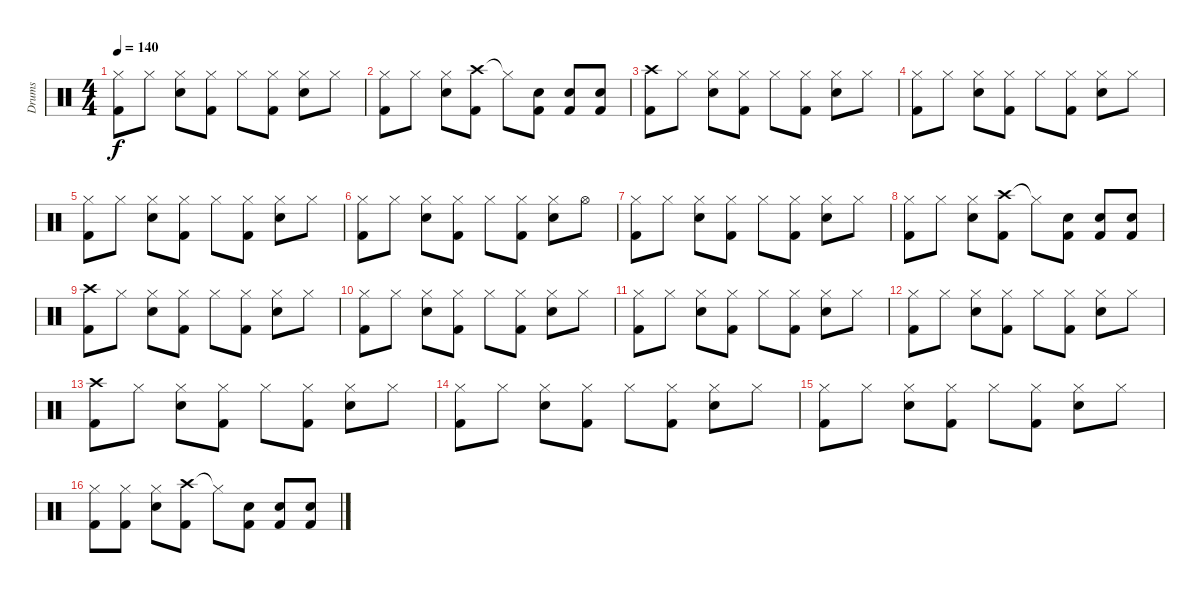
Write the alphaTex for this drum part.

\track ("Drums" "Drums") {instrument percussion}
\staff {score}
\articulation defaults
\ts (4 4)
\tempo 140
\clef neutral
\ks c
("Hi-Hat (closed)" "Kick (hit) 2").8{dy f} "Hi-Hat (closed)".8 ("Hi-Hat (closed)" "Snare (hit) 2").8 ("Hi-Hat (closed)" "Kick (hit) 2").8 "Hi-Hat (closed)".8 ("Hi-Hat (closed)" "Kick (hit) 2").8 ("Hi-Hat (closed)" "Snare (hit) 2").8 "Hi-Hat (closed)".8 |
("Hi-Hat (closed)" "Kick (hit) 2").8 "Hi-Hat (closed)".8 ("Hi-Hat (closed)" "Snare (hit) 2").8 ("Crash high (hit)" "Kick (hit) 2").8 "Hi-Hat (closed)"{t}.8 ("Snare (hit) 2" "Kick (hit) 2").8 ("Snare (hit) 2" "Kick (hit) 2").8 ("Snare (hit) 2" "Kick (hit) 2").8 |
("Crash high (hit)" "Kick (hit) 2").8 "Hi-Hat (closed)".8 ("Hi-Hat (closed)" "Snare (hit) 2").8 ("Hi-Hat (closed)" "Kick (hit) 2").8 "Hi-Hat (closed)".8 ("Hi-Hat (closed)" "Kick (hit) 2").8 ("Hi-Hat (closed)" "Snare (hit) 2").8 "Hi-Hat (closed)".8 |
("Hi-Hat (closed)" "Kick (hit) 2").8 "Hi-Hat (closed)".8 ("Hi-Hat (closed)" "Snare (hit) 2").8 ("Hi-Hat (closed)" "Kick (hit) 2").8 "Hi-Hat (closed)".8 ("Hi-Hat (closed)" "Kick (hit) 2").8 ("Hi-Hat (closed)" "Snare (hit) 2").8 "Hi-Hat (closed)".8 |
("Hi-Hat (closed)" "Kick (hit) 2").8 "Hi-Hat (closed)".8 ("Hi-Hat (closed)" "Snare (hit) 2").8 ("Hi-Hat (closed)" "Kick (hit) 2").8 "Hi-Hat (closed)".8 ("Hi-Hat (closed)" "Kick (hit) 2").8 ("Hi-Hat (closed)" "Snare (hit) 2").8 "Hi-Hat (closed)".8 |
("Hi-Hat (closed)" "Kick (hit) 2").8 "Hi-Hat (closed)".8 ("Hi-Hat (closed)" "Snare (hit) 2").8 ("Hi-Hat (closed)" "Kick (hit) 2").8 "Hi-Hat (closed)".8 ("Hi-Hat (closed)" "Kick (hit) 2").8 ("Hi-Hat (closed)" "Snare (hit) 2").8 "Hi-Hat (open)".8 |
("Hi-Hat (closed)" "Kick (hit) 2").8 "Hi-Hat (closed)".8 ("Hi-Hat (closed)" "Snare (hit) 2").8 ("Hi-Hat (closed)" "Kick (hit) 2").8 "Hi-Hat (closed)".8 ("Hi-Hat (closed)" "Kick (hit) 2").8 ("Hi-Hat (closed)" "Snare (hit) 2").8 "Hi-Hat (closed)".8 |
("Hi-Hat (closed)" "Kick (hit) 2").8 "Hi-Hat (closed)".8 ("Hi-Hat (closed)" "Snare (hit) 2").8 ("Crash high (hit)" "Kick (hit) 2").8 "Hi-Hat (closed)"{t}.8 ("Snare (hit) 2" "Kick (hit) 2").8 ("Snare (hit) 2" "Kick (hit) 2").8 ("Snare (hit) 2" "Kick (hit) 2").8 |
("Crash high (hit)" "Kick (hit) 2").8 "Hi-Hat (closed)".8 ("Hi-Hat (closed)" "Snare (hit) 2").8 ("Hi-Hat (closed)" "Kick (hit) 2").8 "Hi-Hat (closed)".8 ("Hi-Hat (closed)" "Kick (hit) 2").8 ("Hi-Hat (closed)" "Snare (hit) 2").8 "Hi-Hat (closed)".8 |
("Hi-Hat (closed)" "Kick (hit) 2").8 "Hi-Hat (closed)".8 ("Hi-Hat (closed)" "Snare (hit) 2").8 ("Hi-Hat (closed)" "Kick (hit) 2").8 "Hi-Hat (closed)".8 ("Hi-Hat (closed)" "Kick (hit) 2").8 ("Hi-Hat (closed)" "Snare (hit) 2").8 "Hi-Hat (closed)".8 |
("Hi-Hat (closed)" "Kick (hit) 2").8 "Hi-Hat (closed)".8 ("Hi-Hat (closed)" "Snare (hit) 2").8 ("Hi-Hat (closed)" "Kick (hit) 2").8 "Hi-Hat (closed)".8 ("Hi-Hat (closed)" "Kick (hit) 2").8 ("Hi-Hat (closed)" "Snare (hit) 2").8 "Hi-Hat (closed)".8 |
("Hi-Hat (closed)" "Kick (hit) 2").8 "Hi-Hat (closed)".8 ("Hi-Hat (closed)" "Snare (hit) 2").8 ("Hi-Hat (closed)" "Kick (hit) 2").8 "Hi-Hat (closed)".8 ("Hi-Hat (closed)" "Kick (hit) 2").8 ("Hi-Hat (closed)" "Snare (hit) 2").8 "Hi-Hat (closed)".8 |
("Crash high (hit)" "Kick (hit) 2").8 "Hi-Hat (closed)".8 ("Hi-Hat (closed)" "Snare (hit) 2").8 ("Hi-Hat (closed)" "Kick (hit) 2").8 "Hi-Hat (closed)".8 ("Hi-Hat (closed)" "Kick (hit) 2").8 ("Hi-Hat (closed)" "Snare (hit) 2").8 "Hi-Hat (closed)".8 |
("Hi-Hat (closed)" "Kick (hit) 2").8 "Hi-Hat (closed)".8 ("Hi-Hat (closed)" "Snare (hit) 2").8 ("Hi-Hat (closed)" "Kick (hit) 2").8 "Hi-Hat (closed)".8 ("Hi-Hat (closed)" "Kick (hit) 2").8 ("Hi-Hat (closed)" "Snare (hit) 2").8 "Hi-Hat (closed)".8 |
("Hi-Hat (closed)" "Kick (hit) 2").8 "Hi-Hat (closed)".8 ("Hi-Hat (closed)" "Snare (hit) 2").8 ("Hi-Hat (closed)" "Kick (hit) 2").8 "Hi-Hat (closed)".8 ("Hi-Hat (closed)" "Kick (hit) 2").8 ("Hi-Hat (closed)" "Snare (hit) 2").8 "Hi-Hat (closed)".8 |
("Hi-Hat (closed)" "Kick (hit) 2").8 ("Hi-Hat (closed)" "Kick (hit) 2").8 ("Hi-Hat (closed)" "Snare (hit) 2").8 ("Crash high (hit)" "Kick (hit) 2").8 "Hi-Hat (closed)"{t}.8 ("Snare (hit) 2" "Kick (hit) 2").8 ("Snare (hit) 2" "Kick (hit) 2").8 ("Snare (hit) 2" "Kick (hit) 2").8
